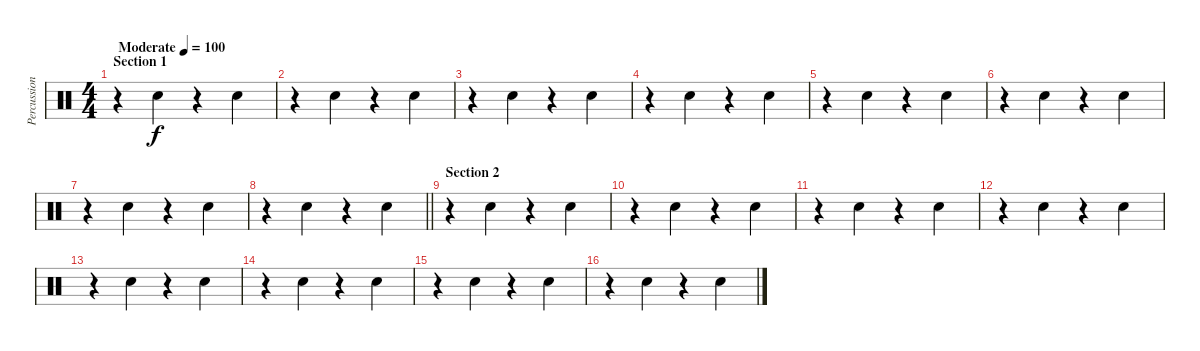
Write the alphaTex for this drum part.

\track ("Percussion" "Percussion") {instrument percussion}
\staff {score}
\articulation defaults
\ts (4 4)
\section ("" "Section 1")
\tempo (100 "Moderate")
\clef neutral
\ks c
r.4{dy f} "Hand Clap (hit)".4 r.4 "Hand Clap (hit)".4 |
r.4 "Hand Clap (hit)".4 r.4 "Hand Clap (hit)".4 |
r.4 "Hand Clap (hit)".4 r.4 "Hand Clap (hit)".4 |
r.4 "Hand Clap (hit)".4 r.4 "Hand Clap (hit)".4 |
r.4 "Hand Clap (hit)".4 r.4 "Hand Clap (hit)".4 |
r.4 "Hand Clap (hit)".4 r.4 "Hand Clap (hit)".4 |
r.4 "Hand Clap (hit)".4 r.4 "Hand Clap (hit)".4 |
\barLineRight lightlight
r.4 "Hand Clap (hit)".4 r.4 "Hand Clap (hit)".4 |
\section ("" "Section 2")
r.4 "Hand Clap (hit)".4 r.4 "Hand Clap (hit)".4 |
r.4 "Hand Clap (hit)".4 r.4 "Hand Clap (hit)".4 |
r.4 "Hand Clap (hit)".4 r.4 "Hand Clap (hit)".4 |
r.4 "Hand Clap (hit)".4 r.4 "Hand Clap (hit)".4 |
r.4 "Hand Clap (hit)".4 r.4 "Hand Clap (hit)".4 |
r.4 "Hand Clap (hit)".4 r.4 "Hand Clap (hit)".4 |
r.4 "Hand Clap (hit)".4 r.4 "Hand Clap (hit)".4 |
r.4 "Hand Clap (hit)".4 r.4 "Hand Clap (hit)".4
